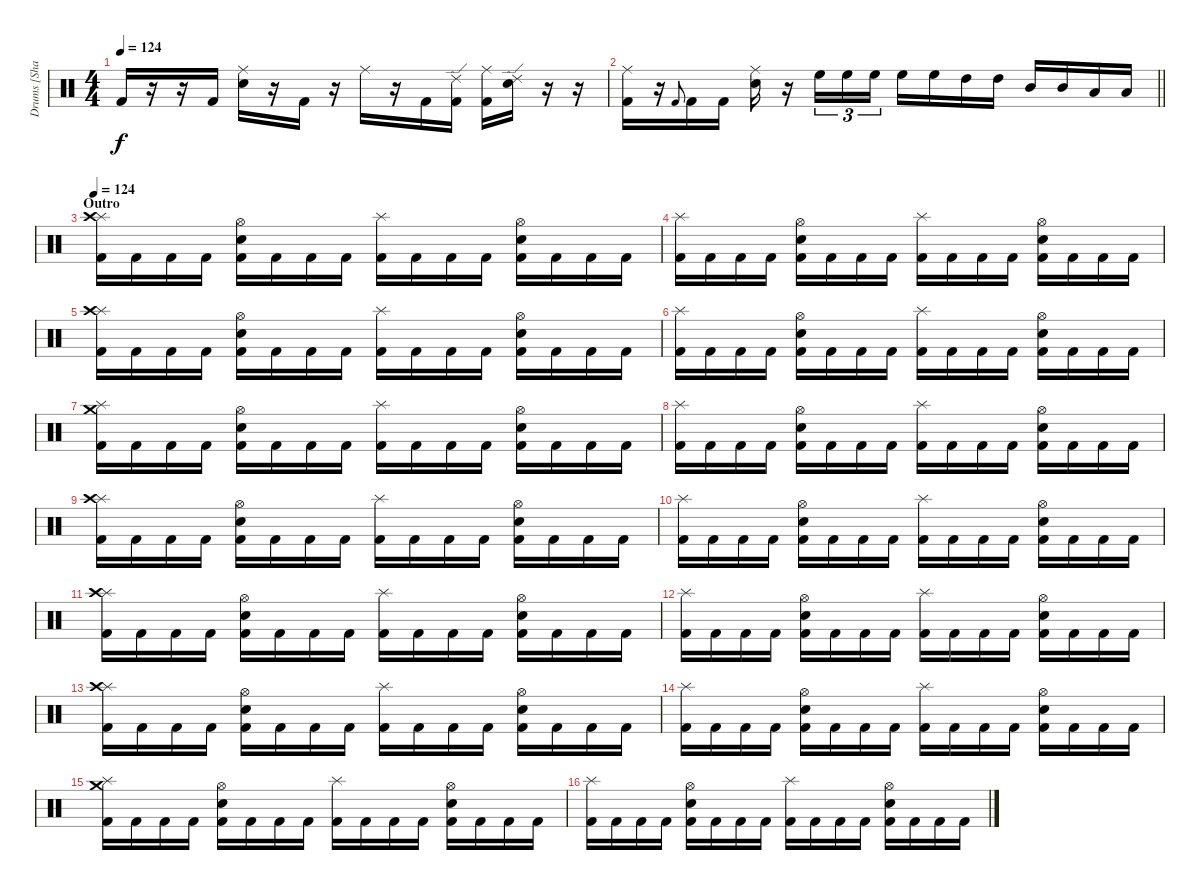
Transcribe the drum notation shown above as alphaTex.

\track ("Drums [Shawn Drover]" "Drums [Sha") {instrument percussion}
\staff {score}
\articulation defaults
\ts (4 4)
\tempo 124
\clef neutral
\ks c "Kick (hit) 2".16{dy f}
r.16 r.16 "Kick (hit) 2".16 ("Ride (middle)" "Electric Snare (hit)").16 r.16 "Kick (hit) 2".16 r.16 "Ride (middle)".16 r.16 "Kick (hit) 2".16 ("Ride (edge) 2" "Kick (hit) 2").16 ("Ride (middle)" "Kick (hit) 2").16 ("Ride (edge) 2" "Electric Snare (hit)").16 r.16 r.16 |
\barLineRight lightlight
("Ride (middle)" "Kick (hit) 2").16 r.16 "Kick (hit) 2".8{gr onbeat} "Kick (hit) 2".16 "Kick (hit) 2".16 ("Ride (middle)" "Electric Snare (hit)").16 r.16 "High Floor Tom (hit)".16{tu (3 2)} "High Floor Tom (hit)".16{tu (3 2)} "High Floor Tom (hit)".16{tu (3 2)} "High Floor Tom (hit)".16 "High Floor Tom (hit)".16 "High Tom (hit)".16 "High Tom (hit)".16 "Mid Tom (hit)".16 "Mid Tom (hit)".16 "Low Tom (hit)".16 "Low Tom (hit)".16 |
\section ("" "Outro")
\tempo 124
("Splash (hit)" "Crash high (hit)" "Kick (hit) 2").16 "Kick (hit) 2".16 "Kick (hit) 2".16 "Kick (hit) 2".16 ("Hi-Hat (open)" "Electric Snare (hit)" "Kick (hit) 2").16 "Kick (hit) 2".16 "Kick (hit) 2".16 "Kick (hit) 2".16 ("Splash (hit)" "Kick (hit) 2").16 "Kick (hit) 2".16 "Kick (hit) 2".16 "Kick (hit) 2".16 ("Hi-Hat (open)" "Electric Snare (hit)" "Kick (hit) 2").16 "Kick (hit) 2".16 "Kick (hit) 2".16 "Kick (hit) 2".16 |
("Splash (hit)" "Kick (hit) 2").16 "Kick (hit) 2".16 "Kick (hit) 2".16 "Kick (hit) 2".16 ("Hi-Hat (open)" "Electric Snare (hit)" "Kick (hit) 2").16 "Kick (hit) 2".16 "Kick (hit) 2".16 "Kick (hit) 2".16 ("Splash (hit)" "Kick (hit) 2").16 "Kick (hit) 2".16 "Kick (hit) 2".16 "Kick (hit) 2".16 ("Hi-Hat (open)" "Electric Snare (hit)" "Kick (hit) 2").16 "Kick (hit) 2".16 "Kick (hit) 2".16 "Kick (hit) 2".16 |
("Splash (hit)" "Crash high (hit)" "Kick (hit) 2").16 "Kick (hit) 2".16 "Kick (hit) 2".16 "Kick (hit) 2".16 ("Hi-Hat (open)" "Electric Snare (hit)" "Kick (hit) 2").16 "Kick (hit) 2".16 "Kick (hit) 2".16 "Kick (hit) 2".16 ("Splash (hit)" "Kick (hit) 2").16 "Kick (hit) 2".16 "Kick (hit) 2".16 "Kick (hit) 2".16 ("Hi-Hat (open)" "Electric Snare (hit)" "Kick (hit) 2").16 "Kick (hit) 2".16 "Kick (hit) 2".16 "Kick (hit) 2".16 |
("Splash (hit)" "Kick (hit) 2").16 "Kick (hit) 2".16 "Kick (hit) 2".16 "Kick (hit) 2".16 ("Hi-Hat (open)" "Electric Snare (hit)" "Kick (hit) 2").16 "Kick (hit) 2".16 "Kick (hit) 2".16 "Kick (hit) 2".16 ("Splash (hit)" "Kick (hit) 2").16 "Kick (hit) 2".16 "Kick (hit) 2".16 "Kick (hit) 2".16 ("Hi-Hat (open)" "Electric Snare (hit)" "Kick (hit) 2").16 "Kick (hit) 2".16 "Kick (hit) 2".16 "Kick (hit) 2".16 |
("Splash (hit)" "Crash medium (hit)" "Kick (hit) 2").16 "Kick (hit) 2".16 "Kick (hit) 2".16 "Kick (hit) 2".16 ("Hi-Hat (open)" "Electric Snare (hit)" "Kick (hit) 2").16 "Kick (hit) 2".16 "Kick (hit) 2".16 "Kick (hit) 2".16 ("Splash (hit)" "Kick (hit) 2").16 "Kick (hit) 2".16 "Kick (hit) 2".16 "Kick (hit) 2".16 ("Hi-Hat (open)" "Electric Snare (hit)" "Kick (hit) 2").16 "Kick (hit) 2".16 "Kick (hit) 2".16 "Kick (hit) 2".16 |
("Splash (hit)" "Kick (hit) 2").16 "Kick (hit) 2".16 "Kick (hit) 2".16 "Kick (hit) 2".16 ("Hi-Hat (open)" "Electric Snare (hit)" "Kick (hit) 2").16 "Kick (hit) 2".16 "Kick (hit) 2".16 "Kick (hit) 2".16 ("Splash (hit)" "Kick (hit) 2").16 "Kick (hit) 2".16 "Kick (hit) 2".16 "Kick (hit) 2".16 ("Hi-Hat (open)" "Electric Snare (hit)" "Kick (hit) 2").16 "Kick (hit) 2".16 "Kick (hit) 2".16 "Kick (hit) 2".16 |
("Splash (hit)" "Crash high (hit)" "Kick (hit) 2").16 "Kick (hit) 2".16 "Kick (hit) 2".16 "Kick (hit) 2".16 ("Hi-Hat (open)" "Electric Snare (hit)" "Kick (hit) 2").16 "Kick (hit) 2".16 "Kick (hit) 2".16 "Kick (hit) 2".16 ("Splash (hit)" "Kick (hit) 2").16 "Kick (hit) 2".16 "Kick (hit) 2".16 "Kick (hit) 2".16 ("Hi-Hat (open)" "Electric Snare (hit)" "Kick (hit) 2").16 "Kick (hit) 2".16 "Kick (hit) 2".16 "Kick (hit) 2".16 |
("Splash (hit)" "Kick (hit) 2").16 "Kick (hit) 2".16 "Kick (hit) 2".16 "Kick (hit) 2".16 ("Hi-Hat (open)" "Electric Snare (hit)" "Kick (hit) 2").16 "Kick (hit) 2".16 "Kick (hit) 2".16 "Kick (hit) 2".16 ("Splash (hit)" "Kick (hit) 2").16 "Kick (hit) 2".16 "Kick (hit) 2".16 "Kick (hit) 2".16 ("Hi-Hat (open)" "Electric Snare (hit)" "Kick (hit) 2").16 "Kick (hit) 2".16 "Kick (hit) 2".16 "Kick (hit) 2".16 |
("Splash (hit)" "Crash high (hit)" "Kick (hit) 2").16 "Kick (hit) 2".16 "Kick (hit) 2".16 "Kick (hit) 2".16 ("Hi-Hat (open)" "Electric Snare (hit)" "Kick (hit) 2").16 "Kick (hit) 2".16 "Kick (hit) 2".16 "Kick (hit) 2".16 ("Splash (hit)" "Kick (hit) 2").16 "Kick (hit) 2".16 "Kick (hit) 2".16 "Kick (hit) 2".16 ("Hi-Hat (open)" "Electric Snare (hit)" "Kick (hit) 2").16 "Kick (hit) 2".16 "Kick (hit) 2".16 "Kick (hit) 2".16 |
("Splash (hit)" "Kick (hit) 2").16 "Kick (hit) 2".16 "Kick (hit) 2".16 "Kick (hit) 2".16 ("Hi-Hat (open)" "Electric Snare (hit)" "Kick (hit) 2").16 "Kick (hit) 2".16 "Kick (hit) 2".16 "Kick (hit) 2".16 ("Splash (hit)" "Kick (hit) 2").16 "Kick (hit) 2".16 "Kick (hit) 2".16 "Kick (hit) 2".16 ("Hi-Hat (open)" "Electric Snare (hit)" "Kick (hit) 2").16 "Kick (hit) 2".16 "Kick (hit) 2".16 "Kick (hit) 2".16 |
("Splash (hit)" "Crash high (hit)" "Kick (hit) 2").16 "Kick (hit) 2".16 "Kick (hit) 2".16 "Kick (hit) 2".16 ("Hi-Hat (open)" "Electric Snare (hit)" "Kick (hit) 2").16 "Kick (hit) 2".16 "Kick (hit) 2".16 "Kick (hit) 2".16 ("Splash (hit)" "Kick (hit) 2").16 "Kick (hit) 2".16 "Kick (hit) 2".16 "Kick (hit) 2".16 ("Hi-Hat (open)" "Electric Snare (hit)" "Kick (hit) 2").16 "Kick (hit) 2".16 "Kick (hit) 2".16 "Kick (hit) 2".16 |
("Splash (hit)" "Kick (hit) 2").16 "Kick (hit) 2".16 "Kick (hit) 2".16 "Kick (hit) 2".16 ("Hi-Hat (open)" "Electric Snare (hit)" "Kick (hit) 2").16 "Kick (hit) 2".16 "Kick (hit) 2".16 "Kick (hit) 2".16 ("Splash (hit)" "Kick (hit) 2").16 "Kick (hit) 2".16 "Kick (hit) 2".16 "Kick (hit) 2".16 ("Hi-Hat (open)" "Electric Snare (hit)" "Kick (hit) 2").16 "Kick (hit) 2".16 "Kick (hit) 2".16 "Kick (hit) 2".16 |
("Splash (hit)" "Crash medium (hit)" "Kick (hit) 2").16 "Kick (hit) 2".16 "Kick (hit) 2".16 "Kick (hit) 2".16 ("Hi-Hat (open)" "Electric Snare (hit)" "Kick (hit) 2").16 "Kick (hit) 2".16 "Kick (hit) 2".16 "Kick (hit) 2".16 ("Splash (hit)" "Kick (hit) 2").16 "Kick (hit) 2".16 "Kick (hit) 2".16 "Kick (hit) 2".16 ("Hi-Hat (open)" "Electric Snare (hit)" "Kick (hit) 2").16 "Kick (hit) 2".16 "Kick (hit) 2".16 "Kick (hit) 2".16 |
("Splash (hit)" "Kick (hit) 2").16 "Kick (hit) 2".16 "Kick (hit) 2".16 "Kick (hit) 2".16 ("Hi-Hat (open)" "Electric Snare (hit)" "Kick (hit) 2").16 "Kick (hit) 2".16 "Kick (hit) 2".16 "Kick (hit) 2".16 ("Splash (hit)" "Kick (hit) 2").16 "Kick (hit) 2".16 "Kick (hit) 2".16 "Kick (hit) 2".16 ("Hi-Hat (open)" "Electric Snare (hit)" "Kick (hit) 2").16 "Kick (hit) 2".16 "Kick (hit) 2".16 "Kick (hit) 2".16
